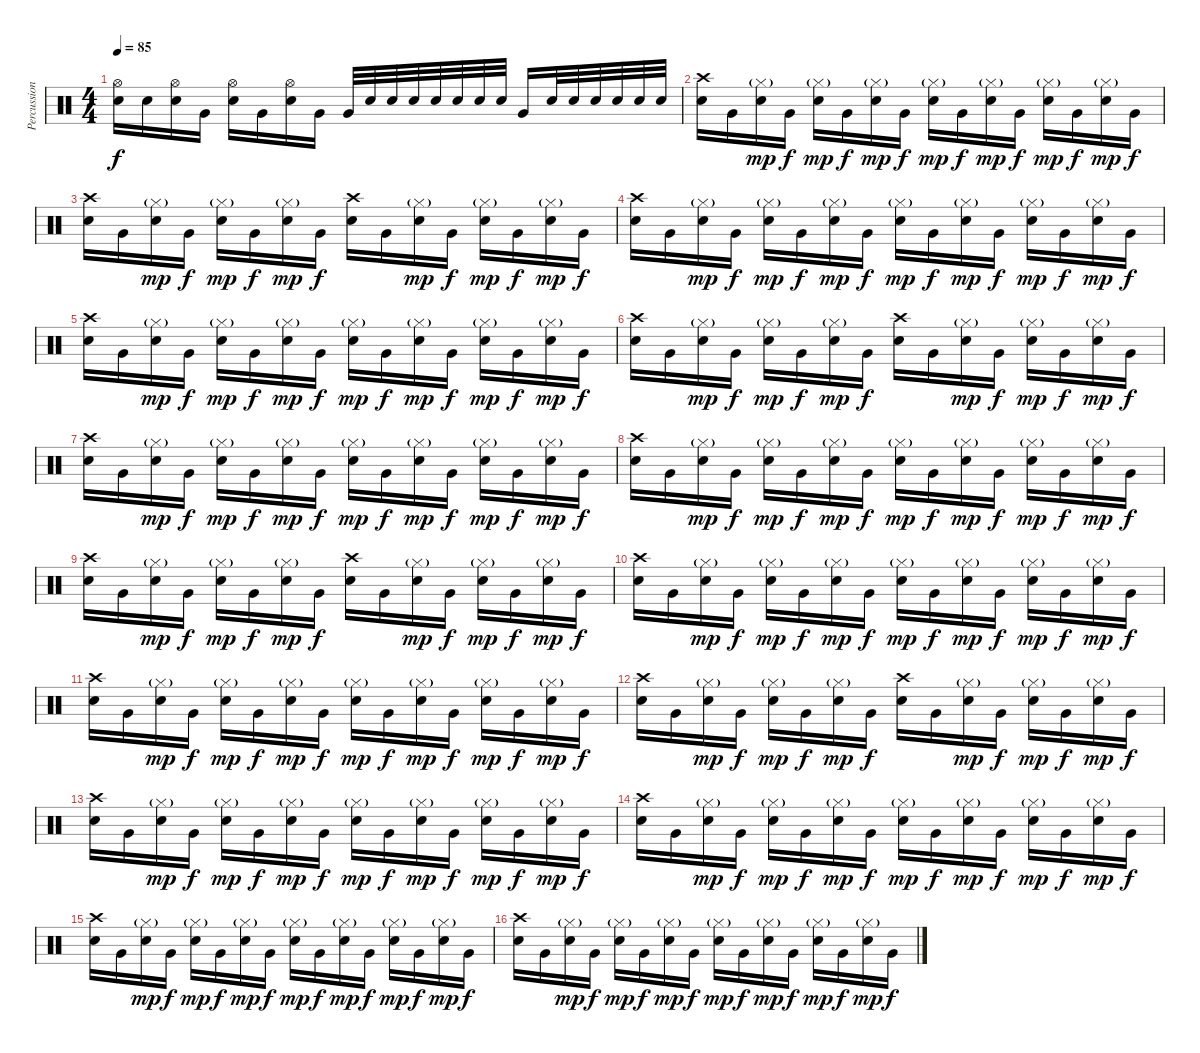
\track ("Percussion" "Percussion") {instrument percussion}
\staff {score}
\articulation defaults
\ts (4 4)
\tempo 85
\clef neutral
\ks c
("Hi-Hat (open)" "Electric Snare (hit)").16{dy f} "Electric Snare (hit)".16 ("Hi-Hat (open)" "Electric Snare (hit)").16 "Very Low Tom (hit)".16 ("Hi-Hat (open)" "Electric Snare (hit)").16 "Very Low Tom (hit)".16 ("Hi-Hat (open)" "Electric Snare (hit)").16 "Very Low Tom (hit)".16 "Very Low Tom (hit)".32 "Electric Snare (hit)".32 "Electric Snare (hit)".32 "Electric Snare (hit)".32 "Electric Snare (hit)".32 "Electric Snare (hit)".32 "Electric Snare (hit)".32 "Electric Snare (hit)".32 "Very Low Tom (hit)".16 "Electric Snare (hit)".32 "Electric Snare (hit)".32 "Electric Snare (hit)".32 "Electric Snare (hit)".32 "Electric Snare (hit)".32 "Electric Snare (hit)".32 |
("Crash high (hit)" "Electric Snare (hit)").16 "Very Low Tom (hit)".16 ("Hi-Hat (closed)"{g} "Electric Snare (hit)").16{dy mp} "Very Low Tom (hit)".16{dy f} ("Hi-Hat (closed)"{g} "Electric Snare (hit)").16{dy mp} "Very Low Tom (hit)".16{dy f} ("Hi-Hat (closed)"{g} "Electric Snare (hit)").16{dy mp} "Very Low Tom (hit)".16{dy f} ("Hi-Hat (closed)"{g} "Electric Snare (hit)").16{dy mp} "Very Low Tom (hit)".16{dy f} ("Hi-Hat (closed)"{g} "Electric Snare (hit)").16{dy mp} "Very Low Tom (hit)".16{dy f} ("Hi-Hat (closed)"{g} "Electric Snare (hit)").16{dy mp} "Very Low Tom (hit)".16{dy f} ("Hi-Hat (closed)"{g} "Electric Snare (hit)").16{dy mp} "Very Low Tom (hit)".16{dy f} |
("Crash high (hit)" "Electric Snare (hit)").16 "Very Low Tom (hit)".16 ("Hi-Hat (closed)"{g} "Electric Snare (hit)").16{dy mp} "Very Low Tom (hit)".16{dy f} ("Hi-Hat (closed)"{g} "Electric Snare (hit)").16{dy mp} "Very Low Tom (hit)".16{dy f} ("Hi-Hat (closed)"{g} "Electric Snare (hit)").16{dy mp} "Very Low Tom (hit)".16{dy f} ("Crash high (hit)" "Electric Snare (hit)").16 "Very Low Tom (hit)".16 ("Hi-Hat (closed)"{g} "Electric Snare (hit)").16{dy mp} "Very Low Tom (hit)".16{dy f} ("Hi-Hat (closed)"{g} "Electric Snare (hit)").16{dy mp} "Very Low Tom (hit)".16{dy f} ("Hi-Hat (closed)"{g} "Electric Snare (hit)").16{dy mp} "Very Low Tom (hit)".16{dy f} |
("Crash high (hit)" "Electric Snare (hit)").16 "Very Low Tom (hit)".16 ("Hi-Hat (closed)"{g} "Electric Snare (hit)").16{dy mp} "Very Low Tom (hit)".16{dy f} ("Hi-Hat (closed)"{g} "Electric Snare (hit)").16{dy mp} "Very Low Tom (hit)".16{dy f} ("Hi-Hat (closed)"{g} "Electric Snare (hit)").16{dy mp} "Very Low Tom (hit)".16{dy f} ("Hi-Hat (closed)"{g} "Electric Snare (hit)").16{dy mp} "Very Low Tom (hit)".16{dy f} ("Hi-Hat (closed)"{g} "Electric Snare (hit)").16{dy mp} "Very Low Tom (hit)".16{dy f} ("Hi-Hat (closed)"{g} "Electric Snare (hit)").16{dy mp} "Very Low Tom (hit)".16{dy f} ("Hi-Hat (closed)"{g} "Electric Snare (hit)").16{dy mp} "Very Low Tom (hit)".16{dy f} |
("Crash high (hit)" "Electric Snare (hit)").16 "Very Low Tom (hit)".16 ("Hi-Hat (closed)"{g} "Electric Snare (hit)").16{dy mp} "Very Low Tom (hit)".16{dy f} ("Hi-Hat (closed)"{g} "Electric Snare (hit)").16{dy mp} "Very Low Tom (hit)".16{dy f} ("Hi-Hat (closed)"{g} "Electric Snare (hit)").16{dy mp} "Very Low Tom (hit)".16{dy f} ("Hi-Hat (closed)"{g} "Electric Snare (hit)").16{dy mp} "Very Low Tom (hit)".16{dy f} ("Hi-Hat (closed)"{g} "Electric Snare (hit)").16{dy mp} "Very Low Tom (hit)".16{dy f} ("Hi-Hat (closed)"{g} "Electric Snare (hit)").16{dy mp} "Very Low Tom (hit)".16{dy f} ("Hi-Hat (closed)"{g} "Electric Snare (hit)").16{dy mp} "Very Low Tom (hit)".16{dy f} |
("Crash high (hit)" "Electric Snare (hit)").16 "Very Low Tom (hit)".16 ("Hi-Hat (closed)"{g} "Electric Snare (hit)").16{dy mp} "Very Low Tom (hit)".16{dy f} ("Hi-Hat (closed)"{g} "Electric Snare (hit)").16{dy mp} "Very Low Tom (hit)".16{dy f} ("Hi-Hat (closed)"{g} "Electric Snare (hit)").16{dy mp} "Very Low Tom (hit)".16{dy f} ("Crash high (hit)" "Electric Snare (hit)").16 "Very Low Tom (hit)".16 ("Hi-Hat (closed)"{g} "Electric Snare (hit)").16{dy mp} "Very Low Tom (hit)".16{dy f} ("Hi-Hat (closed)"{g} "Electric Snare (hit)").16{dy mp} "Very Low Tom (hit)".16{dy f} ("Hi-Hat (closed)"{g} "Electric Snare (hit)").16{dy mp} "Very Low Tom (hit)".16{dy f} |
("Crash high (hit)" "Electric Snare (hit)").16 "Very Low Tom (hit)".16 ("Hi-Hat (closed)"{g} "Electric Snare (hit)").16{dy mp} "Very Low Tom (hit)".16{dy f} ("Hi-Hat (closed)"{g} "Electric Snare (hit)").16{dy mp} "Very Low Tom (hit)".16{dy f} ("Hi-Hat (closed)"{g} "Electric Snare (hit)").16{dy mp} "Very Low Tom (hit)".16{dy f} ("Hi-Hat (closed)"{g} "Electric Snare (hit)").16{dy mp} "Very Low Tom (hit)".16{dy f} ("Hi-Hat (closed)"{g} "Electric Snare (hit)").16{dy mp} "Very Low Tom (hit)".16{dy f} ("Hi-Hat (closed)"{g} "Electric Snare (hit)").16{dy mp} "Very Low Tom (hit)".16{dy f} ("Hi-Hat (closed)"{g} "Electric Snare (hit)").16{dy mp} "Very Low Tom (hit)".16{dy f} |
("Crash high (hit)" "Electric Snare (hit)").16 "Very Low Tom (hit)".16 ("Hi-Hat (closed)"{g} "Electric Snare (hit)").16{dy mp} "Very Low Tom (hit)".16{dy f} ("Hi-Hat (closed)"{g} "Electric Snare (hit)").16{dy mp} "Very Low Tom (hit)".16{dy f} ("Hi-Hat (closed)"{g} "Electric Snare (hit)").16{dy mp} "Very Low Tom (hit)".16{dy f} ("Hi-Hat (closed)"{g} "Electric Snare (hit)").16{dy mp} "Very Low Tom (hit)".16{dy f} ("Hi-Hat (closed)"{g} "Electric Snare (hit)").16{dy mp} "Very Low Tom (hit)".16{dy f} ("Hi-Hat (closed)"{g} "Electric Snare (hit)").16{dy mp} "Very Low Tom (hit)".16{dy f} ("Hi-Hat (closed)"{g} "Electric Snare (hit)").16{dy mp} "Very Low Tom (hit)".16{dy f} |
("Crash high (hit)" "Electric Snare (hit)").16 "Very Low Tom (hit)".16 ("Hi-Hat (closed)"{g} "Electric Snare (hit)").16{dy mp} "Very Low Tom (hit)".16{dy f} ("Hi-Hat (closed)"{g} "Electric Snare (hit)").16{dy mp} "Very Low Tom (hit)".16{dy f} ("Hi-Hat (closed)"{g} "Electric Snare (hit)").16{dy mp} "Very Low Tom (hit)".16{dy f} ("Crash high (hit)" "Electric Snare (hit)").16 "Very Low Tom (hit)".16 ("Hi-Hat (closed)"{g} "Electric Snare (hit)").16{dy mp} "Very Low Tom (hit)".16{dy f} ("Hi-Hat (closed)"{g} "Electric Snare (hit)").16{dy mp} "Very Low Tom (hit)".16{dy f} ("Hi-Hat (closed)"{g} "Electric Snare (hit)").16{dy mp} "Very Low Tom (hit)".16{dy f} |
("Crash high (hit)" "Electric Snare (hit)").16 "Very Low Tom (hit)".16 ("Hi-Hat (closed)"{g} "Electric Snare (hit)").16{dy mp} "Very Low Tom (hit)".16{dy f} ("Hi-Hat (closed)"{g} "Electric Snare (hit)").16{dy mp} "Very Low Tom (hit)".16{dy f} ("Hi-Hat (closed)"{g} "Electric Snare (hit)").16{dy mp} "Very Low Tom (hit)".16{dy f} ("Hi-Hat (closed)"{g} "Electric Snare (hit)").16{dy mp} "Very Low Tom (hit)".16{dy f} ("Hi-Hat (closed)"{g} "Electric Snare (hit)").16{dy mp} "Very Low Tom (hit)".16{dy f} ("Hi-Hat (closed)"{g} "Electric Snare (hit)").16{dy mp} "Very Low Tom (hit)".16{dy f} ("Hi-Hat (closed)"{g} "Electric Snare (hit)").16{dy mp} "Very Low Tom (hit)".16{dy f} |
("Crash high (hit)" "Electric Snare (hit)").16 "Very Low Tom (hit)".16 ("Hi-Hat (closed)"{g} "Electric Snare (hit)").16{dy mp} "Very Low Tom (hit)".16{dy f} ("Hi-Hat (closed)"{g} "Electric Snare (hit)").16{dy mp} "Very Low Tom (hit)".16{dy f} ("Hi-Hat (closed)"{g} "Electric Snare (hit)").16{dy mp} "Very Low Tom (hit)".16{dy f} ("Hi-Hat (closed)"{g} "Electric Snare (hit)").16{dy mp} "Very Low Tom (hit)".16{dy f} ("Hi-Hat (closed)"{g} "Electric Snare (hit)").16{dy mp} "Very Low Tom (hit)".16{dy f} ("Hi-Hat (closed)"{g} "Electric Snare (hit)").16{dy mp} "Very Low Tom (hit)".16{dy f} ("Hi-Hat (closed)"{g} "Electric Snare (hit)").16{dy mp} "Very Low Tom (hit)".16{dy f} |
("Crash high (hit)" "Electric Snare (hit)").16 "Very Low Tom (hit)".16 ("Hi-Hat (closed)"{g} "Electric Snare (hit)").16{dy mp} "Very Low Tom (hit)".16{dy f} ("Hi-Hat (closed)"{g} "Electric Snare (hit)").16{dy mp} "Very Low Tom (hit)".16{dy f} ("Hi-Hat (closed)"{g} "Electric Snare (hit)").16{dy mp} "Very Low Tom (hit)".16{dy f} ("Crash high (hit)" "Electric Snare (hit)").16 "Very Low Tom (hit)".16 ("Hi-Hat (closed)"{g} "Electric Snare (hit)").16{dy mp} "Very Low Tom (hit)".16{dy f} ("Hi-Hat (closed)"{g} "Electric Snare (hit)").16{dy mp} "Very Low Tom (hit)".16{dy f} ("Hi-Hat (closed)"{g} "Electric Snare (hit)").16{dy mp} "Very Low Tom (hit)".16{dy f} |
("Crash high (hit)" "Electric Snare (hit)").16 "Very Low Tom (hit)".16 ("Hi-Hat (closed)"{g} "Electric Snare (hit)").16{dy mp} "Very Low Tom (hit)".16{dy f} ("Hi-Hat (closed)"{g} "Electric Snare (hit)").16{dy mp} "Very Low Tom (hit)".16{dy f} ("Hi-Hat (closed)"{g} "Electric Snare (hit)").16{dy mp} "Very Low Tom (hit)".16{dy f} ("Hi-Hat (closed)"{g} "Electric Snare (hit)").16{dy mp} "Very Low Tom (hit)".16{dy f} ("Hi-Hat (closed)"{g} "Electric Snare (hit)").16{dy mp} "Very Low Tom (hit)".16{dy f} ("Hi-Hat (closed)"{g} "Electric Snare (hit)").16{dy mp} "Very Low Tom (hit)".16{dy f} ("Hi-Hat (closed)"{g} "Electric Snare (hit)").16{dy mp} "Very Low Tom (hit)".16{dy f} |
("Crash high (hit)" "Electric Snare (hit)").16 "Very Low Tom (hit)".16 ("Hi-Hat (closed)"{g} "Electric Snare (hit)").16{dy mp} "Very Low Tom (hit)".16{dy f} ("Hi-Hat (closed)"{g} "Electric Snare (hit)").16{dy mp} "Very Low Tom (hit)".16{dy f} ("Hi-Hat (closed)"{g} "Electric Snare (hit)").16{dy mp} "Very Low Tom (hit)".16{dy f} ("Hi-Hat (closed)"{g} "Electric Snare (hit)").16{dy mp} "Very Low Tom (hit)".16{dy f} ("Hi-Hat (closed)"{g} "Electric Snare (hit)").16{dy mp} "Very Low Tom (hit)".16{dy f} ("Hi-Hat (closed)"{g} "Electric Snare (hit)").16{dy mp} "Very Low Tom (hit)".16{dy f} ("Hi-Hat (closed)"{g} "Electric Snare (hit)").16{dy mp} "Very Low Tom (hit)".16{dy f} |
("Crash high (hit)" "Electric Snare (hit)").16 "Very Low Tom (hit)".16 ("Hi-Hat (closed)"{g} "Electric Snare (hit)").16{dy mp} "Very Low Tom (hit)".16{dy f} ("Hi-Hat (closed)"{g} "Electric Snare (hit)").16{dy mp} "Very Low Tom (hit)".16{dy f} ("Hi-Hat (closed)"{g} "Electric Snare (hit)").16{dy mp} "Very Low Tom (hit)".16{dy f} ("Hi-Hat (closed)"{g} "Electric Snare (hit)").16{dy mp} "Very Low Tom (hit)".16{dy f} ("Hi-Hat (closed)"{g} "Electric Snare (hit)").16{dy mp} "Very Low Tom (hit)".16{dy f} ("Hi-Hat (closed)"{g} "Electric Snare (hit)").16{dy mp} "Very Low Tom (hit)".16{dy f} ("Hi-Hat (closed)"{g} "Electric Snare (hit)").16{dy mp} "Very Low Tom (hit)".16{dy f} |
("Crash high (hit)" "Electric Snare (hit)").16 "Very Low Tom (hit)".16 ("Hi-Hat (closed)"{g} "Electric Snare (hit)").16{dy mp} "Very Low Tom (hit)".16{dy f} ("Hi-Hat (closed)"{g} "Electric Snare (hit)").16{dy mp} "Very Low Tom (hit)".16{dy f} ("Hi-Hat (closed)"{g} "Electric Snare (hit)").16{dy mp} "Very Low Tom (hit)".16{dy f} ("Hi-Hat (closed)"{g} "Electric Snare (hit)").16{dy mp} "Very Low Tom (hit)".16{dy f} ("Hi-Hat (closed)"{g} "Electric Snare (hit)").16{dy mp} "Very Low Tom (hit)".16{dy f} ("Hi-Hat (closed)"{g} "Electric Snare (hit)").16{dy mp} "Very Low Tom (hit)".16{dy f} ("Hi-Hat (closed)"{g} "Electric Snare (hit)").16{dy mp} "Very Low Tom (hit)".16{dy f}
